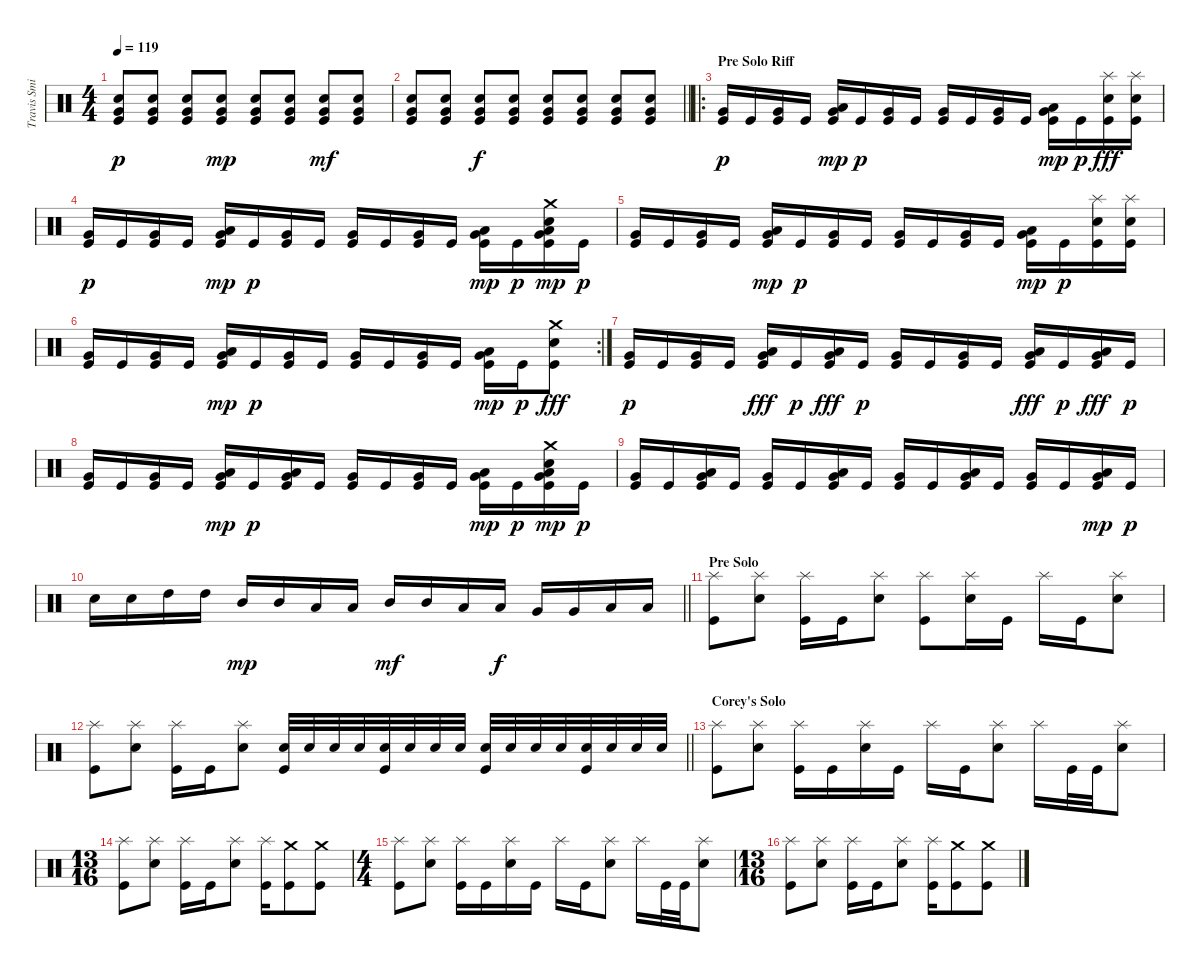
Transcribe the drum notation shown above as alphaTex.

\track ("Travis Smith (Drums)" "Travis Smi") {instrument percussion}
\staff {score}
\articulation defaults
\ts (4 4)
\tempo 119
\clef neutral
\ks c
("Very Low Tom (hit)" "Kick (hit)" "Electric Snare (hit)").8{dy p} ("Very Low Tom (hit)" "Kick (hit)" "Electric Snare (hit)").8 ("Very Low Tom (hit)" "Kick (hit)" "Electric Snare (hit)").8 ("Very Low Tom (hit)" "Kick (hit)" "Electric Snare (hit)").8{dy mp} ("Very Low Tom (hit)" "Kick (hit)" "Electric Snare (hit)").8 ("Very Low Tom (hit)" "Kick (hit)" "Electric Snare (hit)").8 ("Very Low Tom (hit)" "Kick (hit)" "Electric Snare (hit)").8{dy mf} ("Very Low Tom (hit)" "Kick (hit)" "Electric Snare (hit)").8 |
\barLineRight lightlight
("Very Low Tom (hit)" "Kick (hit)" "Electric Snare (hit)").8 ("Very Low Tom (hit)" "Kick (hit)" "Electric Snare (hit)").8 ("Very Low Tom (hit)" "Kick (hit)" "Electric Snare (hit)").8{dy f} ("Very Low Tom (hit)" "Kick (hit)" "Electric Snare (hit)").8 ("Very Low Tom (hit)" "Kick (hit)" "Electric Snare (hit)").8 ("Very Low Tom (hit)" "Kick (hit)" "Electric Snare (hit)").8 ("Very Low Tom (hit)" "Kick (hit)" "Electric Snare (hit)").8 ("Very Low Tom (hit)" "Kick (hit)" "Electric Snare (hit)").8 |
\ro
\section ("" "Pre Solo Riff")
("Very Low Tom (hit)" "Kick (hit)").16{dy p} "Kick (hit)".16 ("Very Low Tom (hit)" "Kick (hit)").16 "Kick (hit)".16 ("Very Low Tom (hit)" "Kick (hit)" "Low Tom (hit)").16{dy mp} "Kick (hit)".16{dy p} ("Very Low Tom (hit)" "Kick (hit)").16 "Kick (hit)".16 ("Very Low Tom (hit)" "Kick (hit)").16 "Kick (hit)".16 ("Very Low Tom (hit)" "Kick (hit)").16 "Kick (hit)".16 ("Very Low Tom (hit)" "Kick (hit)" "Low Tom (hit)").16{dy mp} "Kick (hit)".16{dy p} ("Splash (hit)" "Kick (hit)" "Electric Snare (hit)").16{dy fff} ("Splash (hit)" "Kick (hit)" "Electric Snare (hit)").16 |
("Very Low Tom (hit)" "Kick (hit)").16{dy p} "Kick (hit)".16 ("Very Low Tom (hit)" "Kick (hit)").16 "Kick (hit)".16 ("Very Low Tom (hit)" "Kick (hit)" "Low Tom (hit)").16{dy mp} "Kick (hit)".16{dy p} ("Very Low Tom (hit)" "Kick (hit)").16 "Kick (hit)".16 ("Very Low Tom (hit)" "Kick (hit)").16 "Kick (hit)".16 ("Very Low Tom (hit)" "Kick (hit)").16 "Kick (hit)".16 ("Very Low Tom (hit)" "Kick (hit)" "Low Tom (hit)").16{dy mp} "Kick (hit)".16{dy p} ("Crash medium (hit)" "Very Low Tom (hit)" "Kick (hit)" "Low Tom (hit)" "Electric Snare (hit)").16{dy mp} "Kick (hit)".16{dy p} |
("Very Low Tom (hit)" "Kick (hit)").16 "Kick (hit)".16 ("Very Low Tom (hit)" "Kick (hit)").16 "Kick (hit)".16 ("Very Low Tom (hit)" "Kick (hit)" "Low Tom (hit)").16{dy mp} "Kick (hit)".16{dy p} ("Very Low Tom (hit)" "Kick (hit)").16 "Kick (hit)".16 ("Very Low Tom (hit)" "Kick (hit)").16 "Kick (hit)".16 ("Very Low Tom (hit)" "Kick (hit)").16 "Kick (hit)".16 ("Very Low Tom (hit)" "Kick (hit)" "Low Tom (hit)").16{dy mp} "Kick (hit)".16{dy p} ("Splash (hit)" "Kick (hit)" "Electric Snare (hit)").16 ("Splash (hit)" "Kick (hit)" "Electric Snare (hit)").16 |
\rc 2
("Very Low Tom (hit)" "Kick (hit)").16 "Kick (hit)".16 ("Very Low Tom (hit)" "Kick (hit)").16 "Kick (hit)".16 ("Very Low Tom (hit)" "Kick (hit)" "Low Tom (hit)").16{dy mp} "Kick (hit)".16{dy p} ("Very Low Tom (hit)" "Kick (hit)").16 "Kick (hit)".16 ("Very Low Tom (hit)" "Kick (hit)").16 "Kick (hit)".16 ("Very Low Tom (hit)" "Kick (hit)").16 "Kick (hit)".16 ("Very Low Tom (hit)" "Kick (hit)" "Low Tom (hit)").16{dy mp} "Kick (hit)".16{dy p} ("Crash medium (hit)" "Kick (hit)" "Electric Snare (hit)").8{dy fff} |
("Very Low Tom (hit)" "Kick (hit)").16{dy p} "Kick (hit)".16 ("Very Low Tom (hit)" "Kick (hit)").16 "Kick (hit)".16 ("Very Low Tom (hit)" "Kick (hit)" "Low Tom (hit)").16{dy fff} "Kick (hit)".16{dy p} ("Very Low Tom (hit)" "Kick (hit)" "Low Tom (hit)").16{dy fff} "Kick (hit)".16{dy p} ("Very Low Tom (hit)" "Kick (hit)").16 "Kick (hit)".16 ("Very Low Tom (hit)" "Kick (hit)").16 "Kick (hit)".16 ("Very Low Tom (hit)" "Kick (hit)" "Low Tom (hit)").16{dy fff} "Kick (hit)".16{dy p} ("Very Low Tom (hit)" "Kick (hit)" "Low Tom (hit)").16{dy fff} "Kick (hit)".16{dy p} |
("Very Low Tom (hit)" "Kick (hit)").16 "Kick (hit)".16 ("Very Low Tom (hit)" "Kick (hit)").16 "Kick (hit)".16 ("Very Low Tom (hit)" "Kick (hit)" "Low Tom (hit)").16{dy mp} "Kick (hit)".16{dy p} ("Very Low Tom (hit)" "Kick (hit)" "Low Tom (hit)").16 "Kick (hit)".16 ("Very Low Tom (hit)" "Kick (hit)").16 "Kick (hit)".16 ("Very Low Tom (hit)" "Kick (hit)").16 "Kick (hit)".16 ("Very Low Tom (hit)" "Kick (hit)" "Low Tom (hit)").16{dy mp} "Kick (hit)".16{dy p} ("Crash medium (hit)" "Very Low Tom (hit)" "Kick (hit)" "Low Tom (hit)" "Electric Snare (hit)").16{dy mp} "Kick (hit)".16{dy p} |
("Very Low Tom (hit)" "Kick (hit)").16 "Kick (hit)".16 ("Very Low Tom (hit)" "Kick (hit)" "Low Tom (hit)").16 "Kick (hit)".16 ("Very Low Tom (hit)" "Kick (hit)").16 "Kick (hit)".16 ("Very Low Tom (hit)" "Kick (hit)" "Low Tom (hit)").16 "Kick (hit)".16 ("Very Low Tom (hit)" "Kick (hit)").16 "Kick (hit)".16 ("Very Low Tom (hit)" "Kick (hit)" "Low Tom (hit)").16 "Kick (hit)".16 ("Very Low Tom (hit)" "Kick (hit)").16 "Kick (hit)".16 ("Very Low Tom (hit)" "Kick (hit)" "Low Tom (hit)").16{dy mp} "Kick (hit)".16{dy p} |
\barLineRight lightlight "Electric Snare (hit)".16 "Electric Snare (hit)".16 "High Tom (hit)".16 "High Tom (hit)".16 "Mid Tom (hit)".16{dy mp} "Mid Tom (hit)".16 "Low Tom (hit)".16 "Low Tom (hit)".16 "Mid Tom (hit)".16{dy mf} "Mid Tom (hit)".16 "Low Tom (hit)".16 "Low Tom (hit)".16{dy f} "Very Low Tom (hit)".16 "Very Low Tom (hit)".16 "Low Floor Tom (hit)".16 "Low Floor Tom (hit)".16
|
\section ("" "Pre Solo")
("Splash (hit)" "Kick (hit)").8 ("Splash (hit)" "Electric Snare (hit)").8 ("Splash (hit)" "Kick (hit)").16 "Kick (hit)".16 ("Splash (hit)" "Electric Snare (hit)").8 ("Splash (hit)" "Kick (hit)").8 ("Splash (hit)" "Electric Snare (hit)").16 "Kick (hit)".16 "Splash (hit)".16 "Kick (hit)".16 ("Splash (hit)" "Electric Snare (hit)").8 |
\barLineRight lightlight
("Splash (hit)" "Kick (hit)").8 ("Splash (hit)" "Electric Snare (hit)").8 ("Splash (hit)" "Kick (hit)").16 "Kick (hit)".16 ("Splash (hit)" "Electric Snare (hit)").8 ("Kick (hit)" "Electric Snare (hit)").32 "Electric Snare (hit)".32 "Electric Snare (hit)".32 "Electric Snare (hit)".32 ("Kick (hit)" "Electric Snare (hit)").32 "Electric Snare (hit)".32 "Electric Snare (hit)".32 "Electric Snare (hit)".32 ("Kick (hit)" "Electric Snare (hit)").32 "Electric Snare (hit)".32 "Electric Snare (hit)".32 "Electric Snare (hit)".32 ("Kick (hit)" "Electric Snare (hit)").32 "Electric Snare (hit)".32 "Electric Snare (hit)".32 "Electric Snare (hit)".32 |
\section ("" "Corey's Solo")
("Splash (hit)" "Kick (hit)").8 ("Splash (hit)" "Electric Snare (hit)").8 ("Splash (hit)" "Kick (hit)").16 "Kick (hit)".16 ("Splash (hit)" "Electric Snare (hit)").16 "Kick (hit)".16 "Splash (hit)".16 "Kick (hit)".16 ("Splash (hit)" "Electric Snare (hit)").8 "Splash (hit)".16 "Kick (hit)".32 "Kick (hit)".32 ("Splash (hit)" "Electric Snare (hit)").8 |
\ts (13 16)
("Splash (hit)" "Kick (hit)").8 ("Splash (hit)" "Electric Snare (hit)").8 ("Splash (hit)" "Kick (hit)").16 "Kick (hit)".16 ("Splash (hit)" "Electric Snare (hit)").8 ("Splash (hit)" "Kick (hit)").16 ("Crash medium (hit)" "Kick (hit)").8 ("Crash medium (hit)" "Kick (hit)").8 |
\ts (4 4)
("Splash (hit)" "Kick (hit)").8 ("Splash (hit)" "Electric Snare (hit)").8 ("Splash (hit)" "Kick (hit)").16 "Kick (hit)".16 ("Splash (hit)" "Electric Snare (hit)").16 "Kick (hit)".16 "Splash (hit)".16 "Kick (hit)".16 ("Splash (hit)" "Electric Snare (hit)").8 "Splash (hit)".16 "Kick (hit)".32 "Kick (hit)".32 ("Splash (hit)" "Electric Snare (hit)").8 |
\ts (13 16)
("Splash (hit)" "Kick (hit)").8 ("Splash (hit)" "Electric Snare (hit)").8 ("Splash (hit)" "Kick (hit)").16 "Kick (hit)".16 ("Splash (hit)" "Electric Snare (hit)").8 ("Splash (hit)" "Kick (hit)").16 ("Crash medium (hit)" "Kick (hit)").8 ("Crash medium (hit)" "Kick (hit)").8
